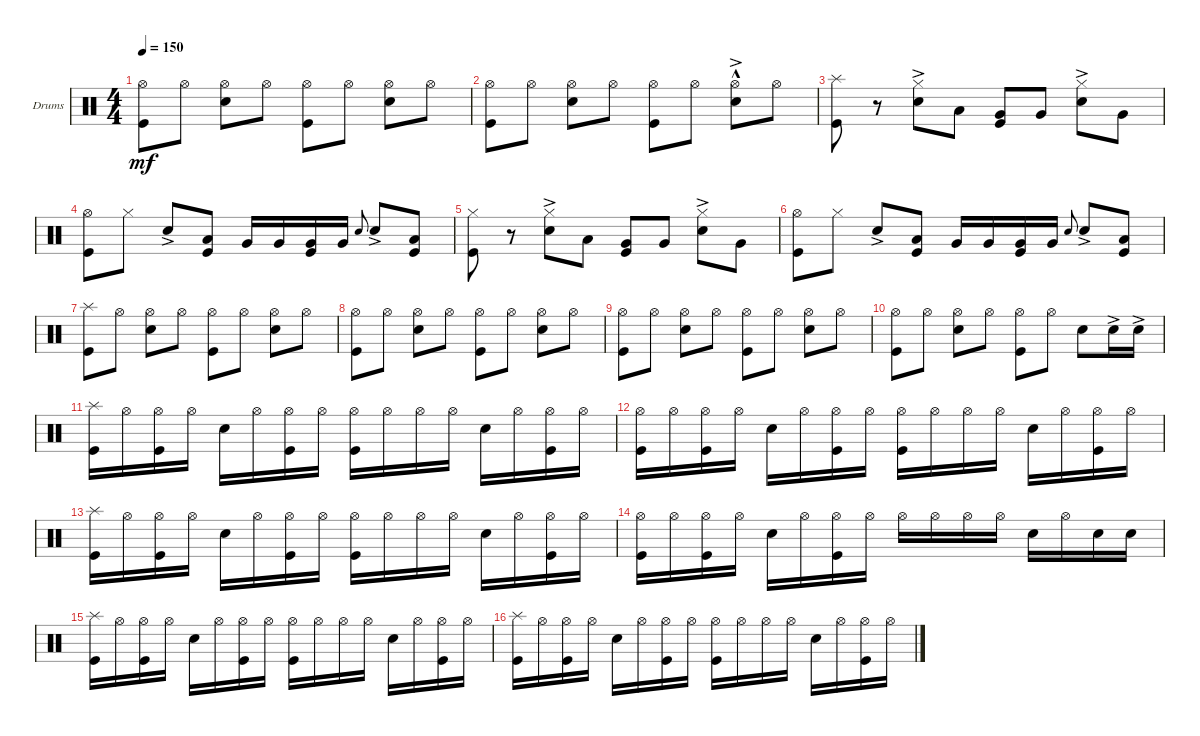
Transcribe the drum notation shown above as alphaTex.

\bracketExtendMode groupsimilarinstruments
\firstSystemTrackNameOrientation horizontal
\otherSystemsTrackNameOrientation horizontal
\track ("Drumkit" "Drums") {instrument percussion}
\staff {score}
\articulation defaults
\ts (4 4)
\tempo 150
\clef neutral
\ks c
("Hi-Hat (open)" "Kick (hit)").8{dy mf} "Hi-Hat (open)".8 ("Snare (hit) 2" "Hi-Hat (open)").8 "Hi-Hat (open)".8 ("Hi-Hat (open)" "Kick (hit)").8 "Hi-Hat (open)".8 ("Snare (hit) 2" "Hi-Hat (open)").8 "Hi-Hat (open)".8 |
("Hi-Hat (open)" "Kick (hit)").8 "Hi-Hat (open)".8 ("Snare (hit) 2" "Hi-Hat (open)").8 "Hi-Hat (open)".8 ("Hi-Hat (open)" "Kick (hit)").8 "Hi-Hat (open)".8 ("Snare (hit) 2"{hac} "Hi-Hat (open)"{ac}).8 "Hi-Hat (open)".8 |
("Splash (hit)" "Kick (hit)").8 r.8 ("Snare (hit) 2"{ac} "Hi-Hat (closed)").8 "Low Tom (hit)".8 ("Very Low Tom (hit)" "Kick (hit)").8 "Very Low Tom (hit)".8 ("Snare (hit) 2"{ac} "Hi-Hat (closed)").8 "Very Low Tom (hit)".8 |
("Hi-Hat (open)" "Kick (hit)").8 "Hi-Hat (closed)".8 "Snare (hit) 2"{ac}.8 ("Kick (hit)" "Low Tom (hit)").8 "Very Low Tom (hit)".16 "Very Low Tom (hit)".16 ("Kick (hit)" "Very Low Tom (hit)").16 "Very Low Tom (hit)".16 "Snare (hit) 2".8{gr onbeat} "Snare (hit) 2"{ac}.8 ("Kick (hit)" "Low Tom (hit)").8 |
("Kick (hit)" "Hi-Hat (closed)").8 r.8 ("Snare (hit) 2"{ac} "Hi-Hat (closed)").8 "Low Tom (hit)".8 ("Very Low Tom (hit)" "Kick (hit)").8 "Very Low Tom (hit)".8 ("Snare (hit) 2"{ac} "Hi-Hat (closed)").8 "Very Low Tom (hit)".8 |
("Hi-Hat (open)" "Kick (hit)").8 "Hi-Hat (closed)".8 "Snare (hit) 2"{ac}.8 ("Kick (hit)" "Low Tom (hit)").8 "Very Low Tom (hit)".16 "Very Low Tom (hit)".16 ("Kick (hit)" "Very Low Tom (hit)").16 "Very Low Tom (hit)".16 "Snare (hit) 2".8{gr onbeat} "Snare (hit) 2"{ac}.8 ("Kick (hit)" "Low Tom (hit)").8 |
("Splash (hit)" "Kick (hit)").8 "Hi-Hat (open)".8 ("Snare (hit) 2" "Hi-Hat (open)").8 "Hi-Hat (open)".8 ("Hi-Hat (open)" "Kick (hit)").8 "Hi-Hat (open)".8 ("Snare (hit) 2" "Hi-Hat (open)").8 "Hi-Hat (open)".8 |
("Hi-Hat (open)" "Kick (hit)").8 "Hi-Hat (open)".8 ("Snare (hit) 2" "Hi-Hat (open)").8 "Hi-Hat (open)".8 ("Hi-Hat (open)" "Kick (hit)").8 "Hi-Hat (open)".8 ("Snare (hit) 2" "Hi-Hat (open)").8 "Hi-Hat (open)".8 |
("Hi-Hat (open)" "Kick (hit)").8 "Hi-Hat (open)".8 ("Snare (hit) 2" "Hi-Hat (open)").8 "Hi-Hat (open)".8 ("Hi-Hat (open)" "Kick (hit)").8 "Hi-Hat (open)".8 ("Snare (hit) 2" "Hi-Hat (open)").8 "Hi-Hat (open)".8 |
("Hi-Hat (open)" "Kick (hit)").8 "Hi-Hat (open)".8 ("Snare (hit) 2" "Hi-Hat (open)").8 "Hi-Hat (open)".8 ("Hi-Hat (open)" "Kick (hit)").8 "Hi-Hat (open)".8 "Snare (hit) 2".8 "Snare (hit) 2"{ac}.16 "Snare (hit) 2"{ac}.16 |
("Splash (hit)" "Kick (hit)").16 "Hi-Hat (open)".16 ("Hi-Hat (open)" "Kick (hit)").16 "Hi-Hat (open)".16 "Snare (hit) 2".16 "Hi-Hat (open)".16 ("Hi-Hat (open)" "Kick (hit)").16 "Hi-Hat (open)".16 ("Hi-Hat (open)" "Kick (hit)").16 "Hi-Hat (open)".16 "Hi-Hat (open)".16 "Hi-Hat (open)".16 "Snare (hit) 2".16 "Hi-Hat (open)".16 ("Hi-Hat (open)" "Kick (hit)").16 "Hi-Hat (open)".16 |
("Hi-Hat (open)" "Kick (hit)").16 "Hi-Hat (open)".16 ("Hi-Hat (open)" "Kick (hit)").16 "Hi-Hat (open)".16 "Snare (hit) 2".16 "Hi-Hat (open)".16 ("Hi-Hat (open)" "Kick (hit)").16 "Hi-Hat (open)".16 ("Hi-Hat (open)" "Kick (hit)").16 "Hi-Hat (open)".16 "Hi-Hat (open)".16 "Hi-Hat (open)".16 "Snare (hit) 2".16 "Hi-Hat (open)".16 ("Hi-Hat (open)" "Kick (hit)").16 "Hi-Hat (open)".16 |
("Splash (hit)" "Kick (hit)").16 "Hi-Hat (open)".16 ("Hi-Hat (open)" "Kick (hit)").16 "Hi-Hat (open)".16 "Snare (hit) 2".16 "Hi-Hat (open)".16 ("Hi-Hat (open)" "Kick (hit)").16 "Hi-Hat (open)".16 ("Hi-Hat (open)" "Kick (hit)").16 "Hi-Hat (open)".16 "Hi-Hat (open)".16 "Hi-Hat (open)".16 "Snare (hit) 2".16 "Hi-Hat (open)".16 ("Hi-Hat (open)" "Kick (hit)").16 "Hi-Hat (open)".16 |
("Hi-Hat (open)" "Kick (hit)").16 "Hi-Hat (open)".16 ("Hi-Hat (open)" "Kick (hit)").16 "Hi-Hat (open)".16 "Snare (hit) 2".16 "Hi-Hat (open)".16 ("Hi-Hat (open)" "Kick (hit)").16 "Hi-Hat (open)".16 "Hi-Hat (open)".16 "Hi-Hat (open)".16 "Hi-Hat (open)".16 "Hi-Hat (open)".16 "Snare (hit) 2".16 "Hi-Hat (open)".16 "Snare (hit) 2".16 "Snare (hit) 2".16 |
("Splash (hit)" "Kick (hit)").16 "Hi-Hat (open)".16 ("Hi-Hat (open)" "Kick (hit)").16 "Hi-Hat (open)".16 "Snare (hit) 2".16 "Hi-Hat (open)".16 ("Hi-Hat (open)" "Kick (hit)").16 "Hi-Hat (open)".16 ("Hi-Hat (open)" "Kick (hit)").16 "Hi-Hat (open)".16 "Hi-Hat (open)".16 "Hi-Hat (open)".16 "Snare (hit) 2".16 "Hi-Hat (open)".16 ("Hi-Hat (open)" "Kick (hit)").16 "Hi-Hat (open)".16 |
("Kick (hit)" "Splash (hit)").16 "Hi-Hat (open)".16 ("Hi-Hat (open)" "Kick (hit)").16 "Hi-Hat (open)".16 "Snare (hit) 2".16 "Hi-Hat (open)".16 ("Hi-Hat (open)" "Kick (hit)").16 "Hi-Hat (open)".16 ("Hi-Hat (open)" "Kick (hit)").16 "Hi-Hat (open)".16 "Hi-Hat (open)".16 "Hi-Hat (open)".16 "Snare (hit) 2".16 "Hi-Hat (open)".16 ("Hi-Hat (open)" "Kick (hit)").16 "Hi-Hat (open)".16
